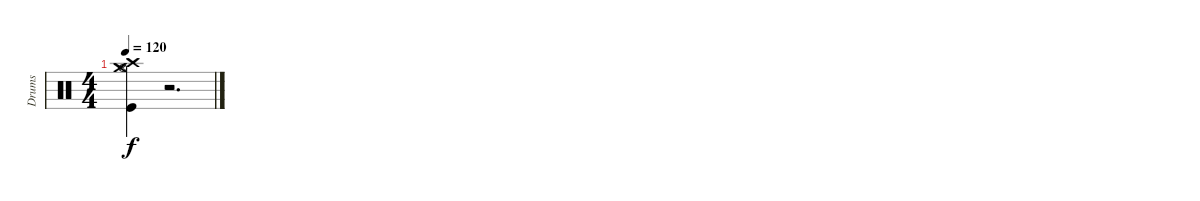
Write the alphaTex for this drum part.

\track ("Drums" "Drums") {instrument percussion}
\staff {score}
\articulation defaults
\ts (4 4)
\tempo 120
\clef neutral
\ks c
("Crash high (hit)" "Hi-Hat (open)" "Crash medium (hit)" "Kick (hit)").4{dy f} r.2{d}
